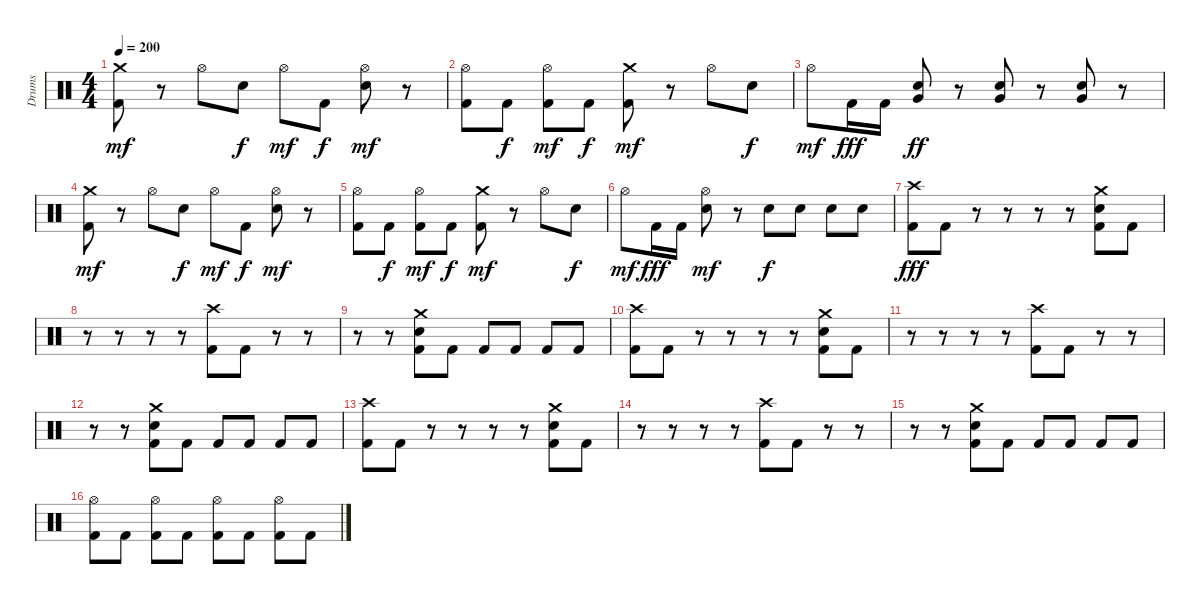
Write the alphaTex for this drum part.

\track ("Drums" "Drums") {instrument percussion}
\staff {score}
\articulation defaults
\ts (4 4)
\tempo 200
\clef neutral
\ks c
("Crash medium (hit)" "Kick (hit) 2").8{dy mf} r.8 "Hi-Hat (open)".8 "Electric Snare (hit)".8{dy f} "Hi-Hat (open)".8{dy mf} "Kick (hit) 2".8{dy f} ("Hi-Hat (open)" "Electric Snare (hit)").8{dy mf} r.8 |
("Hi-Hat (open)" "Kick (hit) 2").8 "Kick (hit) 2".8{dy f} ("Hi-Hat (open)" "Kick (hit) 2").8{dy mf} "Kick (hit) 2".8{dy f} ("Crash medium (hit)" "Kick (hit) 2").8{dy mf} r.8 "Hi-Hat (open)".8 "Electric Snare (hit)".8{dy f} |
"Hi-Hat (open)".8{dy mf} "Kick (hit) 2".16{dy fff} "Kick (hit) 2".16 ("Very Low Tom (hit)" "Electric Snare (hit)").8{dy ff} r.8 ("Very Low Tom (hit)" "Electric Snare (hit)").8 r.8 ("Very Low Tom (hit)" "Electric Snare (hit)").8 r.8 |
("Crash medium (hit)" "Kick (hit) 2").8{dy mf} r.8 "Hi-Hat (open)".8 "Electric Snare (hit)".8{dy f} "Hi-Hat (open)".8{dy mf} "Kick (hit) 2".8{dy f} ("Hi-Hat (open)" "Electric Snare (hit)").8{dy mf} r.8 |
("Hi-Hat (open)" "Kick (hit) 2").8 "Kick (hit) 2".8{dy f} ("Hi-Hat (open)" "Kick (hit) 2").8{dy mf} "Kick (hit) 2".8{dy f} ("Crash medium (hit)" "Kick (hit) 2").8{dy mf} r.8 "Hi-Hat (open)".8 "Electric Snare (hit)".8{dy f} |
"Hi-Hat (open)".8{dy mf} "Kick (hit) 2".16{dy fff} "Kick (hit) 2".16 ("Hi-Hat (open)" "Electric Snare (hit)").8{dy mf} r.8 "Electric Snare (hit)".8{dy f} "Electric Snare (hit)".8 "Electric Snare (hit)".8 "Electric Snare (hit)".8 |
("Crash high (hit)" "Kick (hit) 2").8{dy fff} "Kick (hit) 2".8 r.8 r.8 r.8 r.8 ("Crash medium (hit)" "Electric Snare (hit)" "Kick (hit) 2").8 "Kick (hit) 2".8 |
r.8 r.8 r.8 r.8 ("Crash high (hit)" "Kick (hit) 2").8 "Kick (hit) 2".8 r.8 r.8 |
r.8 r.8 ("Crash medium (hit)" "Electric Snare (hit)" "Kick (hit) 2").8 "Kick (hit) 2".8 "Kick (hit) 2".8 "Kick (hit) 2".8 "Kick (hit) 2".8 "Kick (hit) 2".8 |
("Crash high (hit)" "Kick (hit) 2").8 "Kick (hit) 2".8 r.8 r.8 r.8 r.8 ("Crash medium (hit)" "Electric Snare (hit)" "Kick (hit) 2").8 "Kick (hit) 2".8 |
r.8 r.8 r.8 r.8 ("Crash high (hit)" "Kick (hit) 2").8 "Kick (hit) 2".8 r.8 r.8 |
r.8 r.8 ("Crash medium (hit)" "Electric Snare (hit)" "Kick (hit) 2").8 "Kick (hit) 2".8 "Kick (hit) 2".8 "Kick (hit) 2".8 "Kick (hit) 2".8 "Kick (hit) 2".8 |
("Crash high (hit)" "Kick (hit) 2").8 "Kick (hit) 2".8 r.8 r.8 r.8 r.8 ("Crash medium (hit)" "Electric Snare (hit)" "Kick (hit) 2").8 "Kick (hit) 2".8 |
r.8 r.8 r.8 r.8 ("Crash high (hit)" "Kick (hit) 2").8 "Kick (hit) 2".8 r.8 r.8 |
r.8 r.8 ("Crash medium (hit)" "Electric Snare (hit)" "Kick (hit) 2").8 "Kick (hit) 2".8 "Kick (hit) 2".8 "Kick (hit) 2".8 "Kick (hit) 2".8 "Kick (hit) 2".8 |
("Hi-Hat (open)" "Kick (hit) 2").8 "Kick (hit) 2".8 ("Hi-Hat (open)" "Kick (hit) 2").8 "Kick (hit) 2".8 ("Hi-Hat (open)" "Kick (hit) 2").8 "Kick (hit) 2".8 ("Hi-Hat (open)" "Kick (hit) 2").8 "Kick (hit) 2".8
